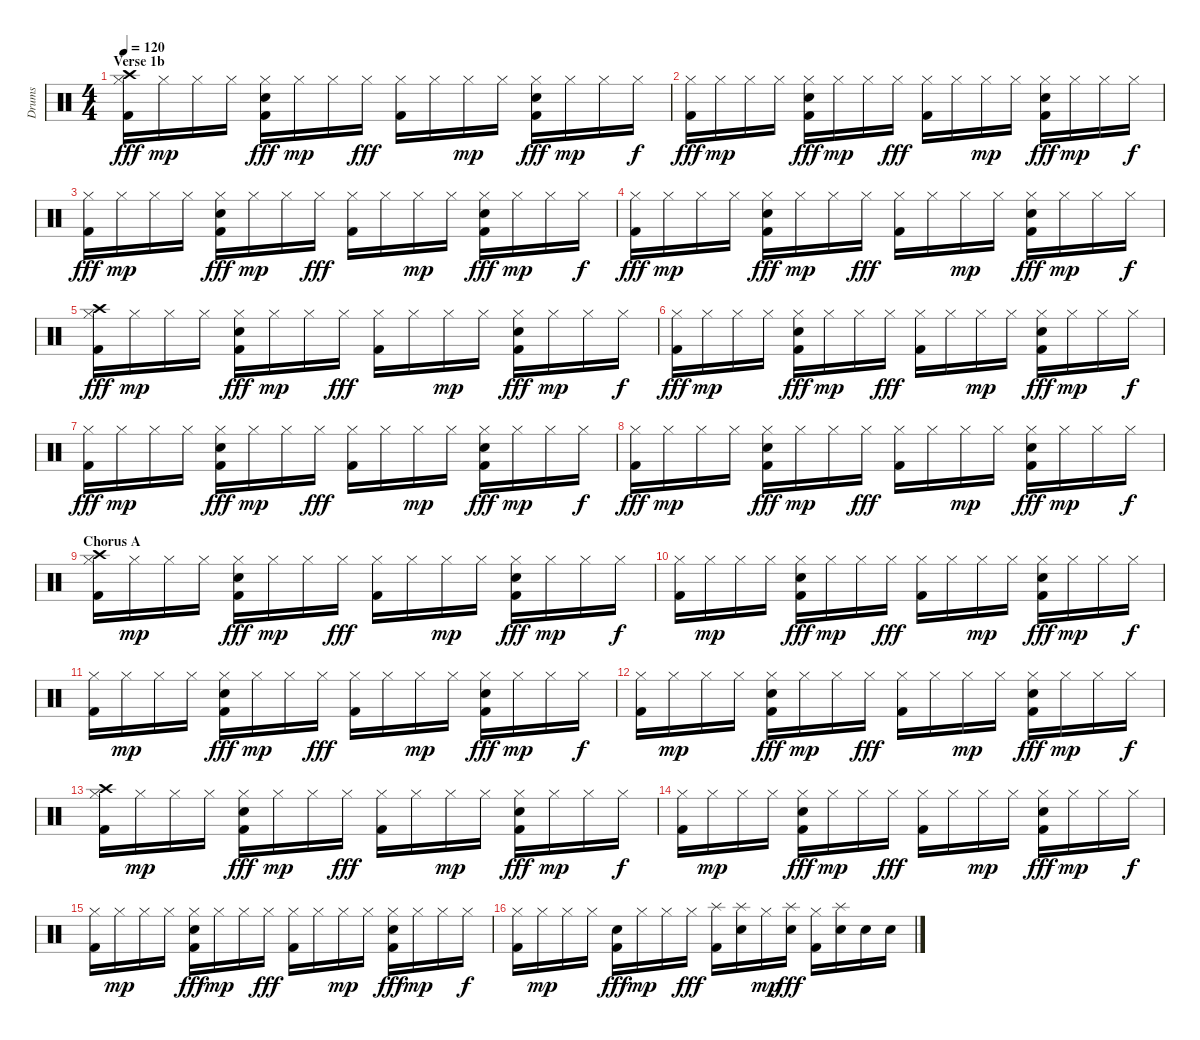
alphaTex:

\track ("Drums" "Drums") {instrument percussion}
\staff {score}
\articulation defaults
\ts (4 4)
\section ("" "Verse 1b")
\tempo 120
\clef neutral
\ks c
("Hi-Hat (closed)" "Crash high (hit)" "Kick (hit) 2").16{dy fff} "Hi-Hat (closed)".16{dy mp} "Hi-Hat (closed)".16 "Hi-Hat (closed)".16 ("Hi-Hat (closed)" "Snare (hit) 2" "Kick (hit) 2").16{dy fff} "Hi-Hat (closed)".16{dy mp} "Hi-Hat (closed)".16 "Hi-Hat (closed)".16{dy fff} ("Hi-Hat (closed)" "Kick (hit) 2").16 "Hi-Hat (closed)".16 "Hi-Hat (closed)".16{dy mp} "Hi-Hat (closed)".16 ("Hi-Hat (closed)" "Snare (hit) 2" "Kick (hit) 2").16{dy fff} "Hi-Hat (closed)".16{dy mp} "Hi-Hat (closed)".16 "Hi-Hat (closed)".16{dy f} |
("Hi-Hat (closed)" "Kick (hit) 2").16{dy fff} "Hi-Hat (closed)".16{dy mp} "Hi-Hat (closed)".16 "Hi-Hat (closed)".16 ("Hi-Hat (closed)" "Snare (hit) 2" "Kick (hit) 2").16{dy fff} "Hi-Hat (closed)".16{dy mp} "Hi-Hat (closed)".16 "Hi-Hat (closed)".16{dy fff} ("Hi-Hat (closed)" "Kick (hit) 2").16 "Hi-Hat (closed)".16 "Hi-Hat (closed)".16{dy mp} "Hi-Hat (closed)".16 ("Hi-Hat (closed)" "Snare (hit) 2" "Kick (hit) 2").16{dy fff} "Hi-Hat (closed)".16{dy mp} "Hi-Hat (closed)".16 "Hi-Hat (closed)".16{dy f} |
("Hi-Hat (closed)" "Kick (hit) 2").16{dy fff} "Hi-Hat (closed)".16{dy mp} "Hi-Hat (closed)".16 "Hi-Hat (closed)".16 ("Hi-Hat (closed)" "Snare (hit) 2" "Kick (hit) 2").16{dy fff} "Hi-Hat (closed)".16{dy mp} "Hi-Hat (closed)".16 "Hi-Hat (closed)".16{dy fff} ("Hi-Hat (closed)" "Kick (hit) 2").16 "Hi-Hat (closed)".16 "Hi-Hat (closed)".16{dy mp} "Hi-Hat (closed)".16 ("Hi-Hat (closed)" "Snare (hit) 2" "Kick (hit) 2").16{dy fff} "Hi-Hat (closed)".16{dy mp} "Hi-Hat (closed)".16 "Hi-Hat (closed)".16{dy f} |
("Hi-Hat (closed)" "Kick (hit) 2").16{dy fff} "Hi-Hat (closed)".16{dy mp} "Hi-Hat (closed)".16 "Hi-Hat (closed)".16 ("Hi-Hat (closed)" "Snare (hit) 2" "Kick (hit) 2").16{dy fff} "Hi-Hat (closed)".16{dy mp} "Hi-Hat (closed)".16 "Hi-Hat (closed)".16{dy fff} ("Hi-Hat (closed)" "Kick (hit) 2").16 "Hi-Hat (closed)".16 "Hi-Hat (closed)".16{dy mp} "Hi-Hat (closed)".16 ("Hi-Hat (closed)" "Snare (hit) 2" "Kick (hit) 2").16{dy fff} "Hi-Hat (closed)".16{dy mp} "Hi-Hat (closed)".16 "Hi-Hat (closed)".16{dy f} |
("Hi-Hat (closed)" "Crash high (hit)" "Kick (hit) 2").16{dy fff} "Hi-Hat (closed)".16{dy mp} "Hi-Hat (closed)".16 "Hi-Hat (closed)".16 ("Hi-Hat (closed)" "Snare (hit) 2" "Kick (hit) 2").16{dy fff} "Hi-Hat (closed)".16{dy mp} "Hi-Hat (closed)".16 "Hi-Hat (closed)".16{dy fff} ("Hi-Hat (closed)" "Kick (hit) 2").16 "Hi-Hat (closed)".16 "Hi-Hat (closed)".16{dy mp} "Hi-Hat (closed)".16 ("Hi-Hat (closed)" "Snare (hit) 2" "Kick (hit) 2").16{dy fff} "Hi-Hat (closed)".16{dy mp} "Hi-Hat (closed)".16 "Hi-Hat (closed)".16{dy f} |
("Hi-Hat (closed)" "Kick (hit) 2").16{dy fff} "Hi-Hat (closed)".16{dy mp} "Hi-Hat (closed)".16 "Hi-Hat (closed)".16 ("Hi-Hat (closed)" "Snare (hit) 2" "Kick (hit) 2").16{dy fff} "Hi-Hat (closed)".16{dy mp} "Hi-Hat (closed)".16 "Hi-Hat (closed)".16{dy fff} ("Hi-Hat (closed)" "Kick (hit) 2").16 "Hi-Hat (closed)".16 "Hi-Hat (closed)".16{dy mp} "Hi-Hat (closed)".16 ("Hi-Hat (closed)" "Snare (hit) 2" "Kick (hit) 2").16{dy fff} "Hi-Hat (closed)".16{dy mp} "Hi-Hat (closed)".16 "Hi-Hat (closed)".16{dy f} |
("Hi-Hat (closed)" "Kick (hit) 2").16{dy fff} "Hi-Hat (closed)".16{dy mp} "Hi-Hat (closed)".16 "Hi-Hat (closed)".16 ("Hi-Hat (closed)" "Snare (hit) 2" "Kick (hit) 2").16{dy fff} "Hi-Hat (closed)".16{dy mp} "Hi-Hat (closed)".16 "Hi-Hat (closed)".16{dy fff} ("Hi-Hat (closed)" "Kick (hit) 2").16 "Hi-Hat (closed)".16 "Hi-Hat (closed)".16{dy mp} "Hi-Hat (closed)".16 ("Hi-Hat (closed)" "Snare (hit) 2" "Kick (hit) 2").16{dy fff} "Hi-Hat (closed)".16{dy mp} "Hi-Hat (closed)".16 "Hi-Hat (closed)".16{dy f} |
("Hi-Hat (closed)" "Kick (hit) 2").16{dy fff} "Hi-Hat (closed)".16{dy mp} "Hi-Hat (closed)".16 "Hi-Hat (closed)".16 ("Hi-Hat (closed)" "Snare (hit) 2" "Kick (hit) 2").16{dy fff} "Hi-Hat (closed)".16{dy mp} "Hi-Hat (closed)".16 "Hi-Hat (closed)".16{dy fff} ("Hi-Hat (closed)" "Kick (hit) 2").16 "Hi-Hat (closed)".16 "Hi-Hat (closed)".16{dy mp} "Hi-Hat (closed)".16 ("Hi-Hat (closed)" "Snare (hit) 2" "Kick (hit) 2").16{dy fff} "Hi-Hat (closed)".16{dy mp} "Hi-Hat (closed)".16 "Hi-Hat (closed)".16{dy f} |
\section ("" "Chorus A")
("Hi-Hat (closed)" "Crash high (hit)" "Kick (hit) 2").16 "Hi-Hat (closed)".16{dy mp} "Hi-Hat (closed)".16 "Hi-Hat (closed)".16 ("Hi-Hat (closed)" "Snare (hit) 2" "Kick (hit) 2").16{dy fff} "Hi-Hat (closed)".16{dy mp} "Hi-Hat (closed)".16 "Hi-Hat (closed)".16{dy fff} ("Hi-Hat (closed)" "Kick (hit) 2").16 "Hi-Hat (closed)".16 "Hi-Hat (closed)".16{dy mp} "Hi-Hat (closed)".16 ("Hi-Hat (closed)" "Snare (hit) 2" "Kick (hit) 2").16{dy fff} "Hi-Hat (closed)".16{dy mp} "Hi-Hat (closed)".16 "Hi-Hat (closed)".16{dy f} |
("Hi-Hat (closed)" "Kick (hit) 2").16 "Hi-Hat (closed)".16{dy mp} "Hi-Hat (closed)".16 "Hi-Hat (closed)".16 ("Hi-Hat (closed)" "Snare (hit) 2" "Kick (hit) 2").16{dy fff} "Hi-Hat (closed)".16{dy mp} "Hi-Hat (closed)".16 "Hi-Hat (closed)".16{dy fff} ("Hi-Hat (closed)" "Kick (hit) 2").16 "Hi-Hat (closed)".16 "Hi-Hat (closed)".16{dy mp} "Hi-Hat (closed)".16 ("Hi-Hat (closed)" "Snare (hit) 2" "Kick (hit) 2").16{dy fff} "Hi-Hat (closed)".16{dy mp} "Hi-Hat (closed)".16 "Hi-Hat (closed)".16{dy f} |
("Hi-Hat (closed)" "Kick (hit) 2").16 "Hi-Hat (closed)".16{dy mp} "Hi-Hat (closed)".16 "Hi-Hat (closed)".16 ("Hi-Hat (closed)" "Snare (hit) 2" "Kick (hit) 2").16{dy fff} "Hi-Hat (closed)".16{dy mp} "Hi-Hat (closed)".16 "Hi-Hat (closed)".16{dy fff} ("Hi-Hat (closed)" "Kick (hit) 2").16 "Hi-Hat (closed)".16 "Hi-Hat (closed)".16{dy mp} "Hi-Hat (closed)".16 ("Hi-Hat (closed)" "Snare (hit) 2" "Kick (hit) 2").16{dy fff} "Hi-Hat (closed)".16{dy mp} "Hi-Hat (closed)".16 "Hi-Hat (closed)".16{dy f} |
("Hi-Hat (closed)" "Kick (hit) 2").16 "Hi-Hat (closed)".16{dy mp} "Hi-Hat (closed)".16 "Hi-Hat (closed)".16 ("Hi-Hat (closed)" "Snare (hit) 2" "Kick (hit) 2").16{dy fff} "Hi-Hat (closed)".16{dy mp} "Hi-Hat (closed)".16 "Hi-Hat (closed)".16{dy fff} ("Hi-Hat (closed)" "Kick (hit) 2").16 "Hi-Hat (closed)".16 "Hi-Hat (closed)".16{dy mp} "Hi-Hat (closed)".16 ("Hi-Hat (closed)" "Snare (hit) 2" "Kick (hit) 2").16{dy fff} "Hi-Hat (closed)".16{dy mp} "Hi-Hat (closed)".16 "Hi-Hat (closed)".16{dy f} |
("Hi-Hat (closed)" "Crash high (hit)" "Kick (hit) 2").16 "Hi-Hat (closed)".16{dy mp} "Hi-Hat (closed)".16 "Hi-Hat (closed)".16 ("Hi-Hat (closed)" "Snare (hit) 2" "Kick (hit) 2").16{dy fff} "Hi-Hat (closed)".16{dy mp} "Hi-Hat (closed)".16 "Hi-Hat (closed)".16{dy fff} ("Hi-Hat (closed)" "Kick (hit) 2").16 "Hi-Hat (closed)".16 "Hi-Hat (closed)".16{dy mp} "Hi-Hat (closed)".16 ("Hi-Hat (closed)" "Snare (hit) 2" "Kick (hit) 2").16{dy fff} "Hi-Hat (closed)".16{dy mp} "Hi-Hat (closed)".16 "Hi-Hat (closed)".16{dy f} |
("Hi-Hat (closed)" "Kick (hit) 2").16 "Hi-Hat (closed)".16{dy mp} "Hi-Hat (closed)".16 "Hi-Hat (closed)".16 ("Hi-Hat (closed)" "Snare (hit) 2" "Kick (hit) 2").16{dy fff} "Hi-Hat (closed)".16{dy mp} "Hi-Hat (closed)".16 "Hi-Hat (closed)".16{dy fff} ("Hi-Hat (closed)" "Kick (hit) 2").16 "Hi-Hat (closed)".16 "Hi-Hat (closed)".16{dy mp} "Hi-Hat (closed)".16 ("Hi-Hat (closed)" "Snare (hit) 2" "Kick (hit) 2").16{dy fff} "Hi-Hat (closed)".16{dy mp} "Hi-Hat (closed)".16 "Hi-Hat (closed)".16{dy f} |
("Hi-Hat (closed)" "Kick (hit) 2").16 "Hi-Hat (closed)".16{dy mp} "Hi-Hat (closed)".16 "Hi-Hat (closed)".16 ("Hi-Hat (closed)" "Snare (hit) 2" "Kick (hit) 2").16{dy fff} "Hi-Hat (closed)".16{dy mp} "Hi-Hat (closed)".16 "Hi-Hat (closed)".16{dy fff} ("Hi-Hat (closed)" "Kick (hit) 2").16 "Hi-Hat (closed)".16 "Hi-Hat (closed)".16{dy mp} "Hi-Hat (closed)".16 ("Hi-Hat (closed)" "Snare (hit) 2" "Kick (hit) 2").16{dy fff} "Hi-Hat (closed)".16{dy mp} "Hi-Hat (closed)".16 "Hi-Hat (closed)".16{dy f} |
("Hi-Hat (closed)" "Kick (hit) 2").16 "Hi-Hat (closed)".16{dy mp} "Hi-Hat (closed)".16 "Hi-Hat (closed)".16 ("Snare (hit) 2" "Kick (hit) 2").16{dy fff} "Hi-Hat (closed)".16{dy mp} "Hi-Hat (closed)".16 "Hi-Hat (closed)".16{dy fff} ("Splash (hit)" "Kick (hit) 2").16 ("Splash (hit)" "Snare (hit) 2").16 "Hi-Hat (closed)".16{dy mp} ("Splash (hit)" "Snare (hit) 2").16{dy fff} ("Hi-Hat (closed)" "Kick (hit) 2").16 ("Splash (hit)" "Snare (hit) 2").16 "Snare (hit) 2".16 "Snare (hit) 2".16
